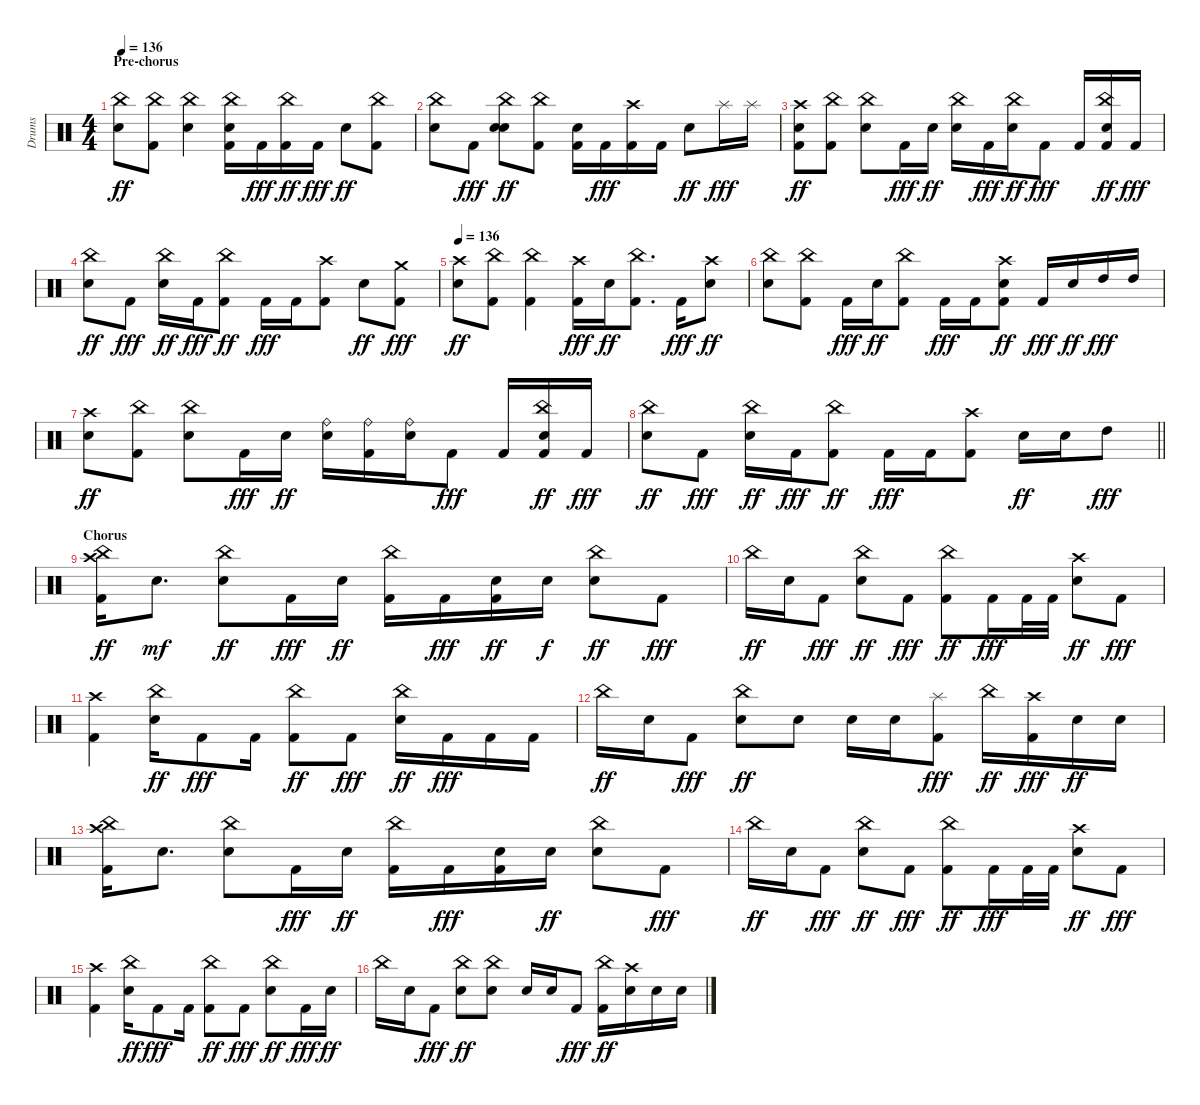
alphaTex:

\track ("Drums" "Drums") {instrument percussion}
\staff {score}
\articulation defaults
\ts (4 4)
\section ("" "Pre-chorus")
\tempo 136
\clef neutral
\ks c
("Snare (hit) 2" "China (hit)").8{dy ff} ("Kick (hit) 2" "China (hit)").8 ("Snare (hit) 2" "China (hit)").4 ("Kick (hit) 2" "Snare (hit) 2" "China (hit)").16 "Kick (hit) 2".16{dy fff} ("Kick (hit) 2" "China (hit)").16{dy ff} "Kick (hit) 2".16{dy fff} "Snare (hit) 2".8{dy ff} ("Kick (hit) 2" "China (hit)").8 |
("Snare (hit) 2" "China (hit)").8 "Kick (hit) 2".8{dy fff} ("Snare (hit) 2" "Snare (hit) 2" "China (hit)").8{dy ff} ("Kick (hit) 2" "China (hit)").8 ("Kick (hit) 2" "Snare (hit) 2").16 "Kick (hit) 2".16{dy fff} ("Kick (hit) 2" "Crash high (hit)").16 "Kick (hit) 2".16 "Snare (hit) 2".8{dy ff} "Splash (hit)".16{dy fff} "Splash (hit)".16 |
("Kick (hit) 2" "Snare (hit) 2" "Crash high (hit)").8{dy ff} ("Kick (hit) 2" "China (hit)").8 ("Snare (hit) 2" "China (hit)").8 "Kick (hit) 2".16{dy fff} "Snare (hit) 2".16{dy ff} ("Snare (hit) 2" "China (hit)").16 "Kick (hit) 2".16{dy fff} ("Snare (hit) 2" "China (hit)").16{dy ff} "Kick (hit) 2".8{dy fff} "Kick (hit) 2".16 ("Kick (hit) 2" "Snare (hit) 2" "China (hit)").16{dy ff} "Kick (hit) 2".16{dy fff} |
("Snare (hit) 2" "China (hit)").8{dy ff} "Kick (hit) 2".8{dy fff} ("Snare (hit) 2" "China (hit)").16{dy ff} "Kick (hit) 2".16{dy fff} ("Kick (hit) 2" "China (hit)").8{dy ff} "Kick (hit) 2".16{dy fff} "Kick (hit) 2".16 ("Kick (hit) 2" "Crash high (hit)").8 "Snare (hit) 2".8{dy ff} ("Kick (hit) 2" "Crash medium (hit)").8{dy fff} |
\tempo 136
("Snare (hit) 2" "Crash high (hit)").8{dy ff} ("Kick (hit) 2" "China (hit)").8 ("Kick (hit) 2" "China (hit)").4 ("Kick (hit) 2" "Crash high (hit)").16{dy fff} "Snare (hit) 2".16{dy ff} ("Kick (hit) 2" "China (hit)").8{d} "Kick (hit) 2".16{dy fff} ("Snare (hit) 2" "Crash high (hit)").8{dy ff} |
("Snare (hit) 2" "China (hit)").8 ("Kick (hit) 2" "China (hit)").8 "Kick (hit) 2".16{dy fff} "Snare (hit) 2".16{dy ff} ("Kick (hit) 2" "China (hit)").8 "Kick (hit) 2".16{dy fff} "Kick (hit) 2".16 ("Kick (hit) 2" "Snare (hit) 2" "Crash high (hit)").8{dy ff} "Kick (hit) 2".16{dy fff} "Snare (hit) 2".16{dy ff} "High Tom (hit)".16{dy fff} "High Tom (hit)".16 |
("Snare (hit) 2" "Crash high (hit)").8{dy ff} ("Kick (hit) 2" "China (hit)").8 ("Snare (hit) 2" "China (hit)").8 "Kick (hit) 2".16{dy fff} "Snare (hit) 2".16{dy ff} ("Snare (hit) 2" "Ride (bell)").16 ("Kick (hit) 2" "Ride (bell)").16 ("Snare (hit) 2" "Ride (bell)").16 "Kick (hit) 2".8{dy fff} "Kick (hit) 2".16 ("Kick (hit) 2" "Snare (hit) 2" "China (hit)").16{dy ff} "Kick (hit) 2".16{dy fff} |
\barLineRight lightlight
("Snare (hit) 2" "China (hit)").8{dy ff} "Kick (hit) 2".8{dy fff} ("Snare (hit) 2" "China (hit)").16{dy ff} "Kick (hit) 2".16{dy fff} ("Kick (hit) 2" "China (hit)").8{dy ff} "Kick (hit) 2".16{dy fff} "Kick (hit) 2".16 ("Kick (hit) 2" "Crash high (hit)").8 "Snare (hit) 2".16{dy ff} "Snare (hit) 2".16 "High Tom (hit)".8{dy fff} |
\section ("" "Chorus")
("Kick (hit) 2" "China (hit)" "Crash high (hit)").16{dy ff} "Snare (hit) 2".8{d dy mf} ("Snare (hit) 2" "China (hit)").8{dy ff} "Kick (hit) 2".16{dy fff} "Snare (hit) 2".16{dy ff} ("Kick (hit) 2" "China (hit)").16 "Kick (hit) 2".16{dy fff} ("Kick (hit) 2" "Snare (hit) 2").16{dy ff} "Snare (hit) 2".16{dy f} ("Snare (hit) 2" "China (hit)").8{dy ff} "Kick (hit) 2".8{dy fff} |
"China (hit)".16{dy ff} "Snare (hit) 2".16 "Kick (hit) 2".8{dy fff} ("Snare (hit) 2" "China (hit)").8{dy ff} "Kick (hit) 2".8{dy fff} ("Kick (hit) 2" "China (hit)").8{dy ff} "Kick (hit) 2".16{dy fff} "Kick (hit) 2".32 "Kick (hit) 2".32 ("Snare (hit) 2" "Crash high (hit)").8{dy ff} "Kick (hit) 2".8{dy fff} |
("Kick (hit) 2" "Crash high (hit)").4 ("Snare (hit) 2" "China (hit)").16{dy ff} "Kick (hit) 2".8{dy fff} "Kick (hit) 2".16 ("Kick (hit) 2" "China (hit)").8{dy ff} "Kick (hit) 2".8{dy fff} ("Snare (hit) 2" "China (hit)").16{dy ff} "Kick (hit) 2".16{dy fff} "Kick (hit) 2".16 "Kick (hit) 2".16 |
"China (hit)".16{dy ff} "Snare (hit) 2".16 "Kick (hit) 2".8{dy fff} ("Snare (hit) 2" "China (hit)").8{dy ff} "Snare (hit) 2".8 "Snare (hit) 2".16 "Snare (hit) 2".16 ("Kick (hit) 2" "Splash (hit)").8{dy fff} "China (hit)".16{dy ff} ("Kick (hit) 2" "Crash high (hit)").16{dy fff} "Snare (hit) 2".16{dy ff} "Snare (hit) 2".16 |
("Kick (hit) 2" "Crash high (hit)" "China (hit)").16 "Snare (hit) 2".8{d} ("Snare (hit) 2" "China (hit)").8 "Kick (hit) 2".16{dy fff} "Snare (hit) 2".16{dy ff} ("Kick (hit) 2" "China (hit)").16 "Kick (hit) 2".16{dy fff} ("Kick (hit) 2" "Snare (hit) 2").16 "Snare (hit) 2".16{dy ff} ("Snare (hit) 2" "China (hit)").8 "Kick (hit) 2".8{dy fff} |
"China (hit)".16{dy ff} "Snare (hit) 2".16 "Kick (hit) 2".8{dy fff} ("Snare (hit) 2" "China (hit)").8{dy ff} "Kick (hit) 2".8{dy fff} ("Kick (hit) 2" "China (hit)").8{dy ff} "Kick (hit) 2".16{dy fff} "Kick (hit) 2".32 "Kick (hit) 2".32 ("Snare (hit) 2" "Crash high (hit)").8{dy ff} "Kick (hit) 2".8{dy fff} |
("Kick (hit) 2" "Crash high (hit)").4 ("Snare (hit) 2" "China (hit)").16{dy ff} "Kick (hit) 2".8{dy fff} "Kick (hit) 2".16 ("Kick (hit) 2" "China (hit)").8{dy ff} "Kick (hit) 2".8{dy fff} ("Snare (hit) 2" "China (hit)").8{dy ff} "Kick (hit) 2".16{dy fff} "Snare (hit) 2".16{dy ff} |
"China (hit)".16 "Snare (hit) 2".16 "Kick (hit) 2".8{dy fff} ("Snare (hit) 2" "China (hit)").8{dy ff} ("Snare (hit) 2" "China (hit)").8 "Snare (hit) 2".16 "Snare (hit) 2".16 "Kick (hit) 2".8{dy fff} ("Kick (hit) 2" "China (hit)").16{dy ff} ("Snare (hit) 2" "Crash high (hit)").16 "Snare (hit) 2".16 "Snare (hit) 2".16
